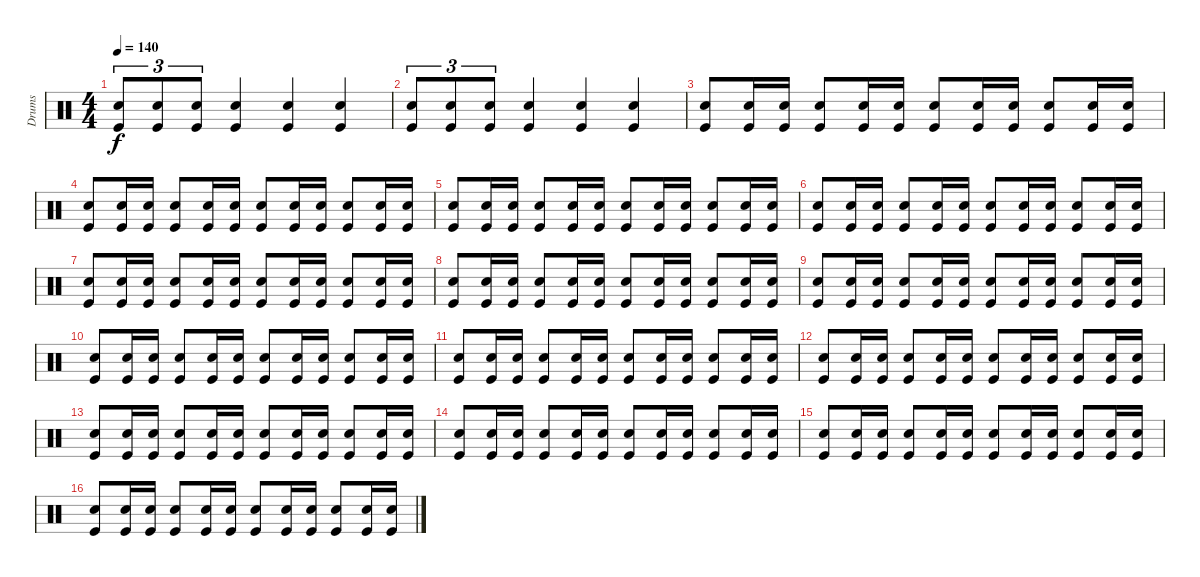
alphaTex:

\track ("Drums" "Drums") {instrument percussion}
\staff {score}
\articulation defaults
\ts (4 4)
\tempo 140
\clef neutral
\ks c
("Snare (hit) 2" "Kick (hit)").8{tu (3 2) dy f} ("Snare (hit) 2" "Kick (hit)").8{tu (3 2)} ("Snare (hit) 2" "Kick (hit)").8{tu (3 2)} ("Snare (hit) 2" "Kick (hit)").4 ("Snare (hit) 2" "Kick (hit)").4 ("Snare (hit) 2" "Kick (hit)").4 |
("Snare (hit) 2" "Kick (hit)").8{tu (3 2)} ("Snare (hit) 2" "Kick (hit)").8{tu (3 2)} ("Snare (hit) 2" "Kick (hit)").8{tu (3 2)} ("Snare (hit) 2" "Kick (hit)").4 ("Snare (hit) 2" "Kick (hit)").4 ("Snare (hit) 2" "Kick (hit)").4 |
("Snare (hit) 2" "Kick (hit)").8 ("Snare (hit) 2" "Kick (hit)").16 ("Snare (hit) 2" "Kick (hit)").16 ("Snare (hit) 2" "Kick (hit)").8 ("Snare (hit) 2" "Kick (hit)").16 ("Snare (hit) 2" "Kick (hit)").16 ("Snare (hit) 2" "Kick (hit)").8 ("Snare (hit) 2" "Kick (hit)").16 ("Snare (hit) 2" "Kick (hit)").16 ("Snare (hit) 2" "Kick (hit)").8 ("Snare (hit) 2" "Kick (hit)").16 ("Snare (hit) 2" "Kick (hit)").16 |
("Snare (hit) 2" "Kick (hit)").8 ("Snare (hit) 2" "Kick (hit)").16 ("Snare (hit) 2" "Kick (hit)").16 ("Snare (hit) 2" "Kick (hit)").8 ("Snare (hit) 2" "Kick (hit)").16 ("Snare (hit) 2" "Kick (hit)").16 ("Snare (hit) 2" "Kick (hit)").8 ("Snare (hit) 2" "Kick (hit)").16 ("Snare (hit) 2" "Kick (hit)").16 ("Snare (hit) 2" "Kick (hit)").8 ("Snare (hit) 2" "Kick (hit)").16 ("Snare (hit) 2" "Kick (hit)").16 |
("Snare (hit) 2" "Kick (hit)").8 ("Snare (hit) 2" "Kick (hit)").16 ("Snare (hit) 2" "Kick (hit)").16 ("Snare (hit) 2" "Kick (hit)").8 ("Snare (hit) 2" "Kick (hit)").16 ("Snare (hit) 2" "Kick (hit)").16 ("Snare (hit) 2" "Kick (hit)").8 ("Snare (hit) 2" "Kick (hit)").16 ("Snare (hit) 2" "Kick (hit)").16 ("Snare (hit) 2" "Kick (hit)").8 ("Snare (hit) 2" "Kick (hit)").16 ("Snare (hit) 2" "Kick (hit)").16 |
("Snare (hit) 2" "Kick (hit)").8 ("Snare (hit) 2" "Kick (hit)").16 ("Snare (hit) 2" "Kick (hit)").16 ("Snare (hit) 2" "Kick (hit)").8 ("Snare (hit) 2" "Kick (hit)").16 ("Snare (hit) 2" "Kick (hit)").16 ("Snare (hit) 2" "Kick (hit)").8 ("Snare (hit) 2" "Kick (hit)").16 ("Snare (hit) 2" "Kick (hit)").16 ("Snare (hit) 2" "Kick (hit)").8 ("Snare (hit) 2" "Kick (hit)").16 ("Snare (hit) 2" "Kick (hit)").16 |
("Snare (hit) 2" "Kick (hit)").8 ("Snare (hit) 2" "Kick (hit)").16 ("Snare (hit) 2" "Kick (hit)").16 ("Snare (hit) 2" "Kick (hit)").8 ("Snare (hit) 2" "Kick (hit)").16 ("Snare (hit) 2" "Kick (hit)").16 ("Snare (hit) 2" "Kick (hit)").8 ("Snare (hit) 2" "Kick (hit)").16 ("Snare (hit) 2" "Kick (hit)").16 ("Snare (hit) 2" "Kick (hit)").8 ("Snare (hit) 2" "Kick (hit)").16 ("Snare (hit) 2" "Kick (hit)").16 |
("Snare (hit) 2" "Kick (hit)").8 ("Snare (hit) 2" "Kick (hit)").16 ("Snare (hit) 2" "Kick (hit)").16 ("Snare (hit) 2" "Kick (hit)").8 ("Snare (hit) 2" "Kick (hit)").16 ("Snare (hit) 2" "Kick (hit)").16 ("Snare (hit) 2" "Kick (hit)").8 ("Snare (hit) 2" "Kick (hit)").16 ("Snare (hit) 2" "Kick (hit)").16 ("Snare (hit) 2" "Kick (hit)").8 ("Snare (hit) 2" "Kick (hit)").16 ("Snare (hit) 2" "Kick (hit)").16 |
("Snare (hit) 2" "Kick (hit)").8 ("Snare (hit) 2" "Kick (hit)").16 ("Snare (hit) 2" "Kick (hit)").16 ("Snare (hit) 2" "Kick (hit)").8 ("Snare (hit) 2" "Kick (hit)").16 ("Snare (hit) 2" "Kick (hit)").16 ("Snare (hit) 2" "Kick (hit)").8 ("Snare (hit) 2" "Kick (hit)").16 ("Snare (hit) 2" "Kick (hit)").16 ("Snare (hit) 2" "Kick (hit)").8 ("Snare (hit) 2" "Kick (hit)").16 ("Snare (hit) 2" "Kick (hit)").16 |
("Snare (hit) 2" "Kick (hit)").8 ("Snare (hit) 2" "Kick (hit)").16 ("Snare (hit) 2" "Kick (hit)").16 ("Snare (hit) 2" "Kick (hit)").8 ("Snare (hit) 2" "Kick (hit)").16 ("Snare (hit) 2" "Kick (hit)").16 ("Snare (hit) 2" "Kick (hit)").8 ("Snare (hit) 2" "Kick (hit)").16 ("Snare (hit) 2" "Kick (hit)").16 ("Snare (hit) 2" "Kick (hit)").8 ("Snare (hit) 2" "Kick (hit)").16 ("Snare (hit) 2" "Kick (hit)").16 |
("Snare (hit) 2" "Kick (hit)").8 ("Snare (hit) 2" "Kick (hit)").16 ("Snare (hit) 2" "Kick (hit)").16 ("Snare (hit) 2" "Kick (hit)").8 ("Snare (hit) 2" "Kick (hit)").16 ("Snare (hit) 2" "Kick (hit)").16 ("Snare (hit) 2" "Kick (hit)").8 ("Snare (hit) 2" "Kick (hit)").16 ("Snare (hit) 2" "Kick (hit)").16 ("Snare (hit) 2" "Kick (hit)").8 ("Snare (hit) 2" "Kick (hit)").16 ("Snare (hit) 2" "Kick (hit)").16 |
("Snare (hit) 2" "Kick (hit)").8 ("Snare (hit) 2" "Kick (hit)").16 ("Snare (hit) 2" "Kick (hit)").16 ("Snare (hit) 2" "Kick (hit)").8 ("Snare (hit) 2" "Kick (hit)").16 ("Snare (hit) 2" "Kick (hit)").16 ("Snare (hit) 2" "Kick (hit)").8 ("Snare (hit) 2" "Kick (hit)").16 ("Snare (hit) 2" "Kick (hit)").16 ("Snare (hit) 2" "Kick (hit)").8 ("Snare (hit) 2" "Kick (hit)").16 ("Snare (hit) 2" "Kick (hit)").16 |
("Snare (hit) 2" "Kick (hit)").8 ("Snare (hit) 2" "Kick (hit)").16 ("Snare (hit) 2" "Kick (hit)").16 ("Snare (hit) 2" "Kick (hit)").8 ("Snare (hit) 2" "Kick (hit)").16 ("Snare (hit) 2" "Kick (hit)").16 ("Snare (hit) 2" "Kick (hit)").8 ("Snare (hit) 2" "Kick (hit)").16 ("Snare (hit) 2" "Kick (hit)").16 ("Snare (hit) 2" "Kick (hit)").8 ("Snare (hit) 2" "Kick (hit)").16 ("Snare (hit) 2" "Kick (hit)").16 |
("Snare (hit) 2" "Kick (hit)").8 ("Snare (hit) 2" "Kick (hit)").16 ("Snare (hit) 2" "Kick (hit)").16 ("Snare (hit) 2" "Kick (hit)").8 ("Snare (hit) 2" "Kick (hit)").16 ("Snare (hit) 2" "Kick (hit)").16 ("Snare (hit) 2" "Kick (hit)").8 ("Snare (hit) 2" "Kick (hit)").16 ("Snare (hit) 2" "Kick (hit)").16 ("Snare (hit) 2" "Kick (hit)").8 ("Snare (hit) 2" "Kick (hit)").16 ("Snare (hit) 2" "Kick (hit)").16 |
("Snare (hit) 2" "Kick (hit)").8 ("Snare (hit) 2" "Kick (hit)").16 ("Snare (hit) 2" "Kick (hit)").16 ("Snare (hit) 2" "Kick (hit)").8 ("Snare (hit) 2" "Kick (hit)").16 ("Snare (hit) 2" "Kick (hit)").16 ("Snare (hit) 2" "Kick (hit)").8 ("Snare (hit) 2" "Kick (hit)").16 ("Snare (hit) 2" "Kick (hit)").16 ("Snare (hit) 2" "Kick (hit)").8 ("Snare (hit) 2" "Kick (hit)").16 ("Snare (hit) 2" "Kick (hit)").16 |
("Snare (hit) 2" "Kick (hit)").8 ("Snare (hit) 2" "Kick (hit)").16 ("Snare (hit) 2" "Kick (hit)").16 ("Snare (hit) 2" "Kick (hit)").8 ("Snare (hit) 2" "Kick (hit)").16 ("Snare (hit) 2" "Kick (hit)").16 ("Snare (hit) 2" "Kick (hit)").8 ("Snare (hit) 2" "Kick (hit)").16 ("Snare (hit) 2" "Kick (hit)").16 ("Snare (hit) 2" "Kick (hit)").8 ("Snare (hit) 2" "Kick (hit)").16 ("Snare (hit) 2" "Kick (hit)").16
